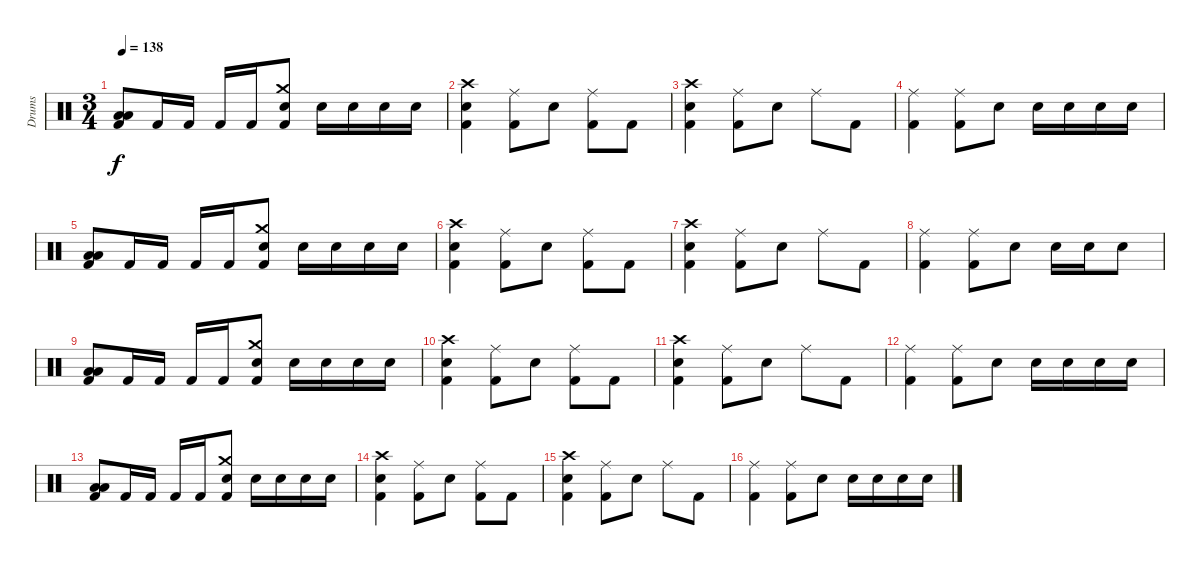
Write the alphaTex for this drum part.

\track ("Drums" "Drums") {instrument percussion}
\staff {score}
\articulation defaults
\ts (3 4)
\tempo 138
\clef neutral
\ks c
("Low Tom (hit)" "Low Tom (hit)" "Kick (hit) 2").8{dy f} "Kick (hit) 2".16 "Kick (hit) 2".16 "Kick (hit) 2".16 "Kick (hit) 2".16 ("Crash medium (hit)" "Electric Snare (hit)" "Kick (hit) 2").8 "Electric Snare (hit)".16 "Electric Snare (hit)".16 "Electric Snare (hit)".16 "Electric Snare (hit)".16 |
("Crash high (hit)" "Electric Snare (hit)" "Kick (hit) 2").4 ("Ride (middle)" "Kick (hit) 2").8 "Electric Snare (hit)".8 ("Ride (middle)" "Kick (hit) 2").8 "Kick (hit) 2".8 |
("Crash high (hit)" "Electric Snare (hit)" "Kick (hit) 2").4 ("Ride (middle)" "Kick (hit) 2").8 "Electric Snare (hit)".8 "Ride (middle)".8 "Kick (hit) 2".8 |
("Ride (middle)" "Kick (hit) 2").4 ("Ride (middle)" "Kick (hit) 2").8 "Electric Snare (hit)".8 "Electric Snare (hit)".16 "Electric Snare (hit)".16 "Electric Snare (hit)".16 "Electric Snare (hit)".16 |
("Low Tom (hit)" "Low Tom (hit)" "Kick (hit) 2").8 "Kick (hit) 2".16 "Kick (hit) 2".16 "Kick (hit) 2".16 "Kick (hit) 2".16 ("Crash medium (hit)" "Electric Snare (hit)" "Kick (hit) 2").8 "Electric Snare (hit)".16 "Electric Snare (hit)".16 "Electric Snare (hit)".16 "Electric Snare (hit)".16 |
("Crash high (hit)" "Electric Snare (hit)" "Kick (hit) 2").4 ("Ride (middle)" "Kick (hit) 2").8 "Electric Snare (hit)".8 ("Ride (middle)" "Kick (hit) 2").8 "Kick (hit) 2".8 |
("Crash high (hit)" "Electric Snare (hit)" "Kick (hit) 2").4 ("Ride (middle)" "Kick (hit) 2").8 "Electric Snare (hit)".8 "Ride (middle)".8 "Kick (hit) 2".8 |
("Ride (middle)" "Kick (hit) 2").4 ("Ride (middle)" "Kick (hit) 2").8 "Electric Snare (hit)".8 "Electric Snare (hit)".16 "Electric Snare (hit)".16 "Electric Snare (hit)".8 |
("Low Tom (hit)" "Low Tom (hit)" "Kick (hit) 2").8 "Kick (hit) 2".16 "Kick (hit) 2".16 "Kick (hit) 2".16 "Kick (hit) 2".16 ("Crash medium (hit)" "Electric Snare (hit)" "Kick (hit) 2").8 "Electric Snare (hit)".16 "Electric Snare (hit)".16 "Electric Snare (hit)".16 "Electric Snare (hit)".16 |
("Crash high (hit)" "Electric Snare (hit)" "Kick (hit) 2").4 ("Ride (middle)" "Kick (hit) 2").8 "Electric Snare (hit)".8 ("Ride (middle)" "Kick (hit) 2").8 "Kick (hit) 2".8 |
("Crash high (hit)" "Electric Snare (hit)" "Kick (hit) 2").4 ("Ride (middle)" "Kick (hit) 2").8 "Electric Snare (hit)".8 "Ride (middle)".8 "Kick (hit) 2".8 |
("Ride (middle)" "Kick (hit) 2").4 ("Ride (middle)" "Kick (hit) 2").8 "Electric Snare (hit)".8 "Electric Snare (hit)".16 "Electric Snare (hit)".16 "Electric Snare (hit)".16 "Electric Snare (hit)".16 |
("Low Tom (hit)" "Low Tom (hit)" "Kick (hit) 2").8 "Kick (hit) 2".16 "Kick (hit) 2".16 "Kick (hit) 2".16 "Kick (hit) 2".16 ("Crash medium (hit)" "Electric Snare (hit)" "Kick (hit) 2").8 "Electric Snare (hit)".16 "Electric Snare (hit)".16 "Electric Snare (hit)".16 "Electric Snare (hit)".16 |
("Crash high (hit)" "Electric Snare (hit)" "Kick (hit) 2").4 ("Ride (middle)" "Kick (hit) 2").8 "Electric Snare (hit)".8 ("Ride (middle)" "Kick (hit) 2").8 "Kick (hit) 2".8 |
("Crash high (hit)" "Electric Snare (hit)" "Kick (hit) 2").4 ("Ride (middle)" "Kick (hit) 2").8 "Electric Snare (hit)".8 "Ride (middle)".8 "Kick (hit) 2".8 |
("Ride (middle)" "Kick (hit) 2").4 ("Ride (middle)" "Kick (hit) 2").8 "Electric Snare (hit)".8 "Electric Snare (hit)".16 "Electric Snare (hit)".16 "Electric Snare (hit)".16 "Electric Snare (hit)".16
